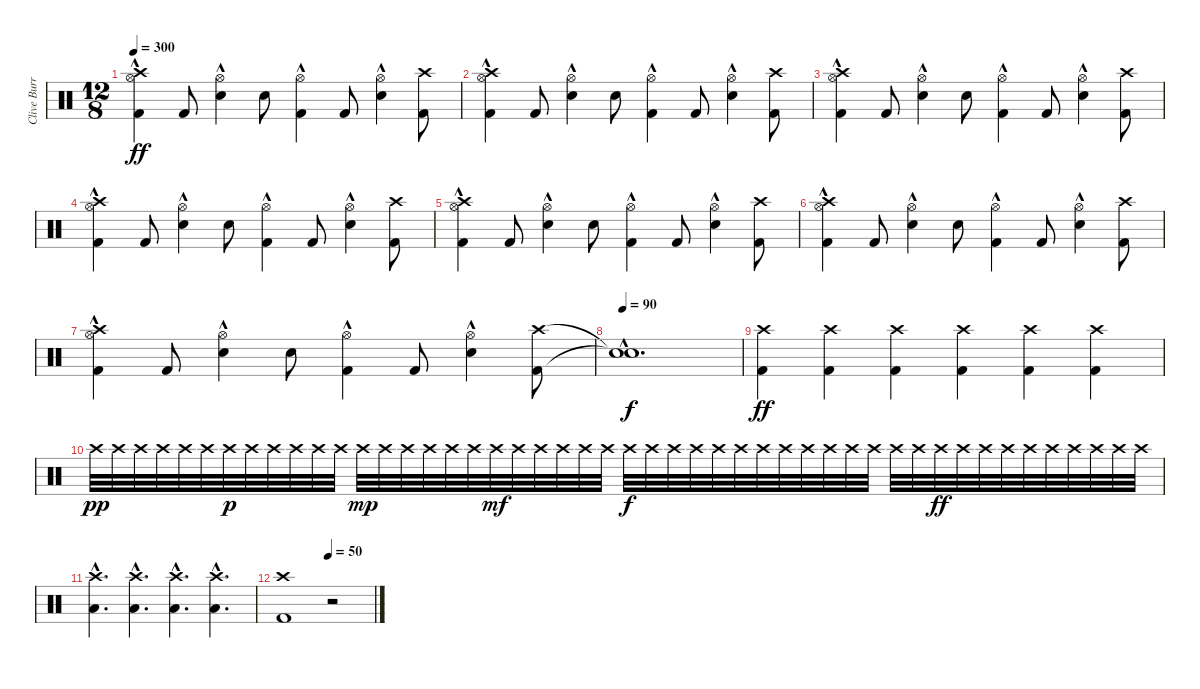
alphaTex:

\track ("Clive Burr" "Clive Burr") {instrument percussion}
\staff {score}
\articulation defaults
\ts (12 8)
\tempo 300
\clef neutral
\ks c
("Kick (hit) 2"{hac} "Hi-Hat (open)" "Crash high (hit)").4{dy ff} "Kick (hit) 2".8 ("Snare (hit) 2"{hac} "Hi-Hat (open)").4 "Snare (hit) 2".8 ("Kick (hit) 2"{hac} "Hi-Hat (open)").4 "Kick (hit) 2".8 ("Snare (hit) 2"{hac} "Hi-Hat (open)").4 ("Kick (hit) 2" "Crash high (hit)").8 |
("Kick (hit) 2"{hac} "Hi-Hat (open)" "Crash high (hit)").4 "Kick (hit) 2".8 ("Snare (hit) 2"{hac} "Hi-Hat (open)").4 "Snare (hit) 2".8 ("Kick (hit) 2"{hac} "Hi-Hat (open)").4 "Kick (hit) 2".8 ("Snare (hit) 2"{hac} "Hi-Hat (open)").4 ("Kick (hit) 2" "Crash high (hit)").8 |
("Kick (hit) 2"{hac} "Hi-Hat (open)" "Crash high (hit)").4 "Kick (hit) 2".8 ("Snare (hit) 2"{hac} "Hi-Hat (open)").4 "Snare (hit) 2".8 ("Kick (hit) 2"{hac} "Hi-Hat (open)").4 "Kick (hit) 2".8 ("Snare (hit) 2"{hac} "Hi-Hat (open)").4 ("Kick (hit) 2" "Crash high (hit)").8 |
("Kick (hit) 2"{hac} "Hi-Hat (open)" "Crash high (hit)").4 "Kick (hit) 2".8 ("Snare (hit) 2"{hac} "Hi-Hat (open)").4 "Snare (hit) 2".8 ("Kick (hit) 2"{hac} "Hi-Hat (open)").4 "Kick (hit) 2".8 ("Snare (hit) 2"{hac} "Hi-Hat (open)").4 ("Kick (hit) 2" "Crash high (hit)").8 |
("Kick (hit) 2"{hac} "Hi-Hat (open)" "Crash high (hit)").4 "Kick (hit) 2".8 ("Snare (hit) 2"{hac} "Hi-Hat (open)").4 "Snare (hit) 2".8 ("Kick (hit) 2"{hac} "Hi-Hat (open)").4 "Kick (hit) 2".8 ("Snare (hit) 2"{hac} "Hi-Hat (open)").4 ("Kick (hit) 2" "Crash high (hit)").8 |
("Kick (hit) 2"{hac} "Hi-Hat (open)" "Crash high (hit)").4 "Kick (hit) 2".8 ("Snare (hit) 2"{hac} "Hi-Hat (open)").4 "Snare (hit) 2".8 ("Kick (hit) 2"{hac} "Hi-Hat (open)").4 "Kick (hit) 2".8 ("Snare (hit) 2"{hac} "Hi-Hat (open)").4 ("Kick (hit) 2" "Crash high (hit)").8 |
("Kick (hit) 2"{hac} "Hi-Hat (open)" "Crash high (hit)").4 "Kick (hit) 2".8 ("Snare (hit) 2"{hac} "Hi-Hat (open)").4 "Snare (hit) 2".8 ("Kick (hit) 2"{hac} "Hi-Hat (open)").4 "Kick (hit) 2".8 ("Snare (hit) 2"{hac} "Hi-Hat (open)").4 ("Kick (hit) 2" "Crash high (hit)").8 |
\tempo 90
("Snare (hit)"{hac t} "Snare (hit)"{hac t}).1{d dy f} |
("Kick (hit) 2" "Crash high (hit)").4{dy ff} ("Kick (hit) 2" "Crash high (hit)").4 ("Kick (hit) 2" "Crash high (hit)").4 ("Kick (hit) 2" "Crash high (hit)").4 ("Kick (hit) 2" "Crash high (hit)").4 ("Kick (hit) 2" "Crash high (hit)").4 |
"Crash high (hit)".32{dy pp volume 16} "Crash high (hit)".32{volume 16} "Crash high (hit)".32{volume 16} "Crash high (hit)".32{volume 16} "Crash high (hit)".32{volume 16} "Crash high (hit)".32{volume 16} "Crash high (hit)".32{dy p volume 16} "Crash high (hit)".32{volume 16} "Crash high (hit)".32{volume 16} "Crash high (hit)".32{volume 16} "Crash high (hit)".32{volume 16} "Crash high (hit)".32{volume 16} "Crash high (hit)".32{dy mp volume 16} "Crash high (hit)".32{volume 16} "Crash high (hit)".32{volume 16} "Crash high (hit)".32{volume 16} "Crash high (hit)".32{volume 16} "Crash high (hit)".32{volume 16} "Crash high (hit)".32{dy mf volume 16} "Crash high (hit)".32{volume 16} "Crash high (hit)".32{volume 16} "Crash high (hit)".32{volume 16} "Crash high (hit)".32{volume 16} "Crash high (hit)".32{volume 16} "Crash high (hit)".32{dy f volume 16} "Crash high (hit)".32{volume 16} "Crash high (hit)".32{volume 16} "Crash high (hit)".32{volume 16} "Crash high (hit)".32{volume 16} "Crash high (hit)".32{volume 16} "Crash high (hit)".32{volume 16} "Crash high (hit)".32{volume 16} "Crash high (hit)".32{volume 16} "Crash high (hit)".32{volume 16} "Crash high (hit)".32{volume 16} "Crash high (hit)".32{volume 16} "Crash high (hit)".32{volume 16} "Crash high (hit)".32{volume 16} "Crash high (hit)".32{dy ff volume 16} "Crash high (hit)".32{volume 16} "Crash high (hit)".32{volume 16} "Crash high (hit)".32{volume 16} "Crash high (hit)".32{volume 16} "Crash high (hit)".32{volume 16} "Crash high (hit)".32{volume 16} "Crash high (hit)".32{volume 16} "Crash high (hit)".32{volume 16} "Crash high (hit)".32{volume 16} |
("Low Tom (hit)"{hac} "Crash high (hit)"{hac}).4{d} ("Low Tom (hit)"{hac} "Crash high (hit)"{hac}).4{d} ("Low Tom (hit)"{hac} "Crash high (hit)"{hac}).4{d} ("Low Tom (hit)"{hac} "Crash high (hit)"{hac}).4{d} |
\tempo (50 0.5)
("Kick (hit) 2" "Crash high (hit)").1{volume 16} r.2
